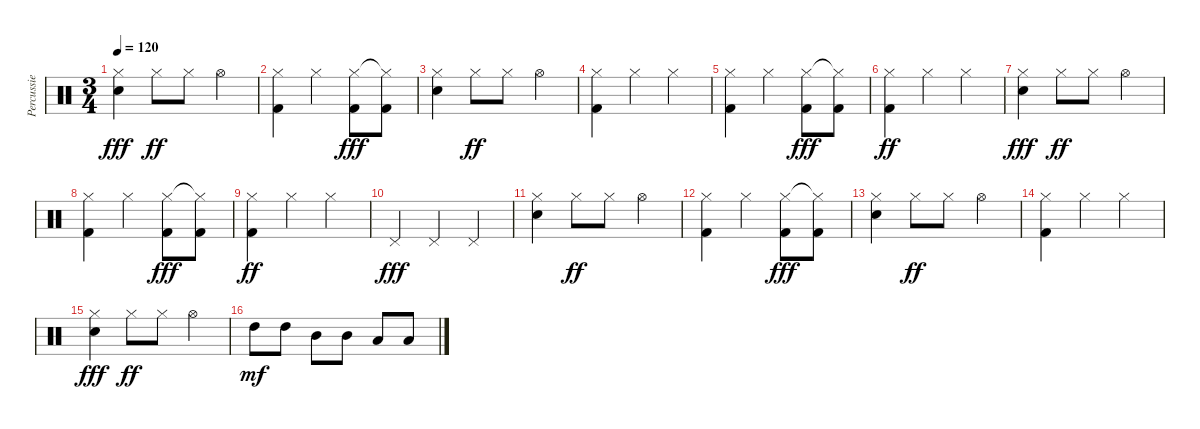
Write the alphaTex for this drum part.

\track ("Percussie" "Percussie") {instrument percussion}
\staff {score}
\articulation defaults
\ts (3 4)
\tempo 120
\clef neutral
\ks c
("Hi-Hat (closed)" "Electric Snare (hit)").4{dy fff} "Hi-Hat (closed)".8{dy ff} "Hi-Hat (closed)".8 "Hi-Hat (open)".4 |
("Hi-Hat (closed)" "Kick (hit) 2").4 "Hi-Hat (closed)".4 ("Hi-Hat (closed)" "Kick (hit) 2").8{dy fff} ("Hi-Hat (closed)"{t} "Kick (hit) 2").8 |
("Hi-Hat (closed)" "Electric Snare (hit)").4 "Hi-Hat (closed)".8{dy ff} "Hi-Hat (closed)".8 "Hi-Hat (open)".4 |
("Hi-Hat (closed)" "Kick (hit) 2").4 "Hi-Hat (closed)".4 "Hi-Hat (closed)".4 |
("Hi-Hat (closed)" "Kick (hit) 2").4 "Hi-Hat (closed)".4 ("Hi-Hat (closed)" "Kick (hit) 2").8{dy fff} ("Hi-Hat (closed)"{t} "Kick (hit) 2").8 |
("Hi-Hat (closed)" "Kick (hit) 2").4{dy ff} "Hi-Hat (closed)".4 "Hi-Hat (closed)".4 |
("Hi-Hat (closed)" "Electric Snare (hit)").4{dy fff} "Hi-Hat (closed)".8{dy ff} "Hi-Hat (closed)".8 "Hi-Hat (open)".4 |
("Hi-Hat (closed)" "Kick (hit) 2").4 "Hi-Hat (closed)".4 ("Hi-Hat (closed)" "Kick (hit) 2").8{dy fff} ("Hi-Hat (closed)"{t} "Kick (hit) 2").8 |
("Hi-Hat (closed)" "Kick (hit) 2").4{dy ff} "Hi-Hat (closed)".4 "Hi-Hat (closed)".4 |
"Pedal Hi-Hat (hit)".4{dy fff} "Pedal Hi-Hat (hit)".4 "Pedal Hi-Hat (hit)".4 |
("Hi-Hat (closed)" "Electric Snare (hit)").4 "Hi-Hat (closed)".8{dy ff} "Hi-Hat (closed)".8 "Hi-Hat (open)".4 |
("Hi-Hat (closed)" "Kick (hit) 2").4 "Hi-Hat (closed)".4 ("Hi-Hat (closed)" "Kick (hit) 2").8{dy fff} ("Hi-Hat (closed)"{t} "Kick (hit) 2").8 |
("Hi-Hat (closed)" "Electric Snare (hit)").4 "Hi-Hat (closed)".8{dy ff} "Hi-Hat (closed)".8 "Hi-Hat (open)".4 |
("Hi-Hat (closed)" "Kick (hit) 2").4 "Hi-Hat (closed)".4 "Hi-Hat (closed)".4 |
("Hi-Hat (closed)" "Electric Snare (hit)").4{dy fff} "Hi-Hat (closed)".8{dy ff} "Hi-Hat (closed)".8 "Hi-Hat (open)".4 |
"High Tom (hit)".8{dy mf} "High Tom (hit)".8 "Mid Tom (hit)".8 "Mid Tom (hit)".8 "Low Tom (hit)".8 "Low Tom (hit)".8
